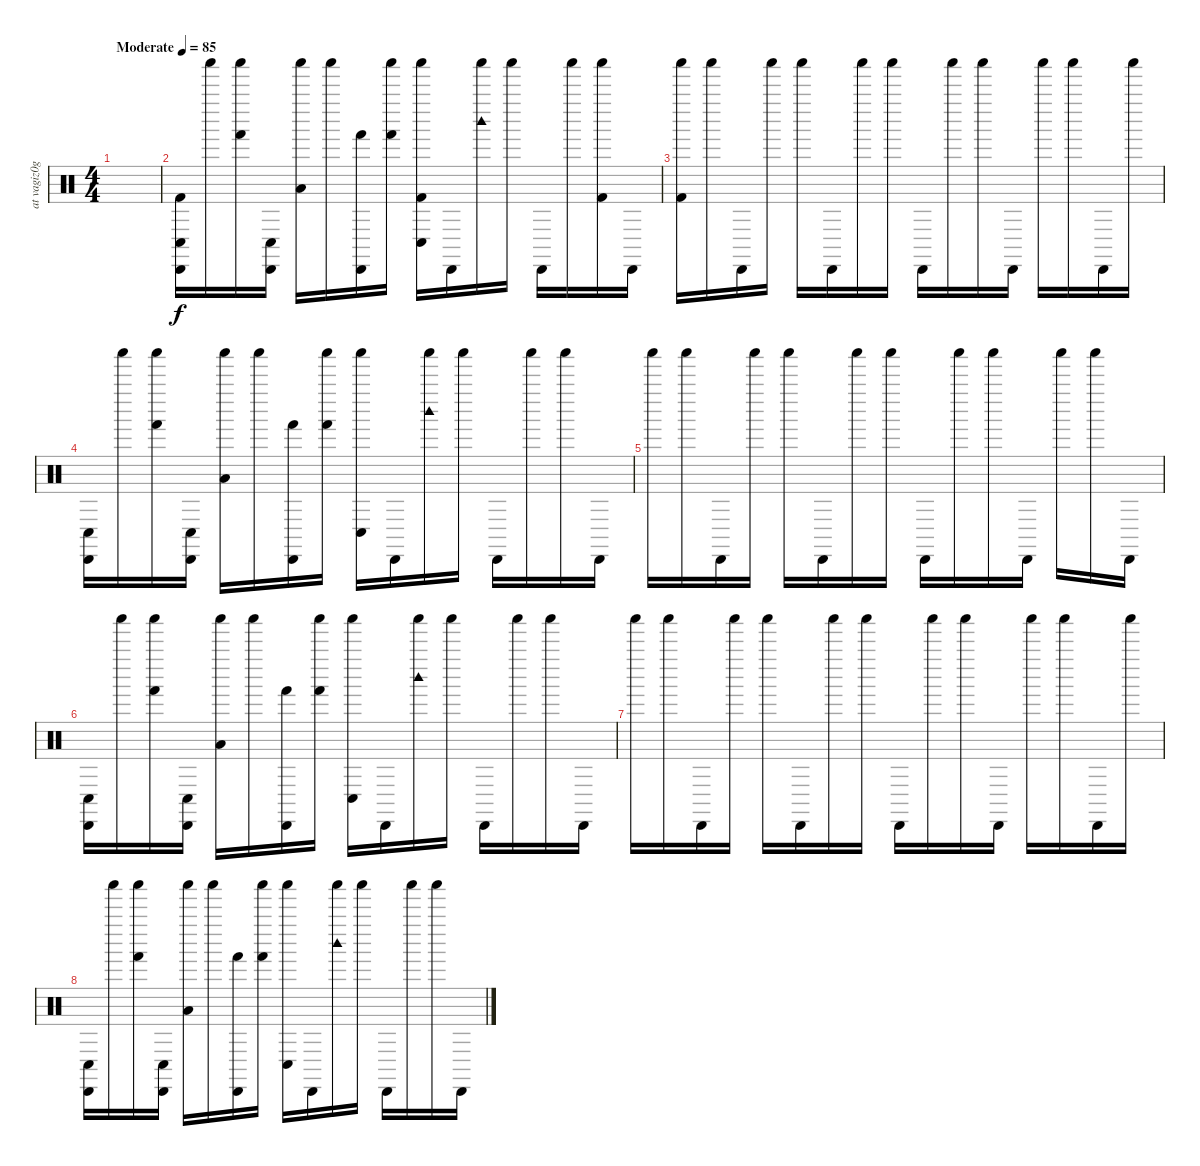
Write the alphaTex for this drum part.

\track ("at vagiz0g@mail.ru" "at vagiz0g") {instrument percussion}
\staff {score}
\articulation defaults
\ts (4 4)
\tempo (85 "Moderate")
\clef neutral
\ks c
|
("Cabasa (hit)" "Conga low (hit)" "Kick (hit) 2").16 "Shaker (hit)".16 ("Shaker (hit)" "Hand (hit)").16 ("Cabasa (hit)" "Conga low (hit)").16 ("Shaker (hit)" "Low Tom (hit)").16 "Shaker (hit)".16 ("Cabasa (hit)" "Hand (hit)").16 ("Shaker (hit)" "Hand (hit)").16 ("Shaker (hit)" "Conga low (hit)" "Kick (hit) 2").16 "Cabasa (hit)".16 ("Shaker (hit)" "Woodblock high (hit)").16 "Shaker (hit)".16 "Cabasa (hit)".16 "Shaker (hit)".16 ("Shaker (hit)" "Kick (hit) 2").16 "Cabasa (hit)".16 |
("Shaker (hit)" "Kick (hit) 2").16 "Shaker (hit)".16 "Cabasa (hit)".16 "Shaker (hit)".16 "Shaker (hit)".16 "Cabasa (hit)".16 "Shaker (hit)".16 "Shaker (hit)".16 "Cabasa (hit)".16 "Shaker (hit)".16 "Shaker (hit)".16 "Cabasa (hit)".16 "Shaker (hit)".16 "Shaker (hit)".16 "Cabasa (hit)".16 "Shaker (hit)".16 |
("Cabasa (hit)" "Conga low (hit)").16 "Shaker (hit)".16 ("Shaker (hit)" "Hand (hit)").16 ("Cabasa (hit)" "Conga low (hit)").16 ("Shaker (hit)" "Low Tom (hit)").16 "Shaker (hit)".16 ("Cabasa (hit)" "Hand (hit)").16 ("Shaker (hit)" "Hand (hit)").16 ("Shaker (hit)" "Conga low (hit)").16 "Cabasa (hit)".16 ("Shaker (hit)" "Woodblock high (hit)").16 "Shaker (hit)".16 "Cabasa (hit)".16 "Shaker (hit)".16 "Shaker (hit)".16 "Cabasa (hit)".16 |
"Shaker (hit)".16 "Shaker (hit)".16 "Cabasa (hit)".16 "Shaker (hit)".16 "Shaker (hit)".16 "Cabasa (hit)".16 "Shaker (hit)".16 "Shaker (hit)".16 "Cabasa (hit)".16 "Shaker (hit)".16 "Shaker (hit)".16 "Cabasa (hit)".16 "Shaker (hit)".16 "Shaker (hit)".16 "Cabasa (hit)".16 |
("Cabasa (hit)" "Conga low (hit)").16 "Shaker (hit)".16 ("Shaker (hit)" "Hand (hit)").16 ("Cabasa (hit)" "Conga low (hit)").16 ("Shaker (hit)" "Low Tom (hit)").16 "Shaker (hit)".16 ("Cabasa (hit)" "Hand (hit)").16 ("Shaker (hit)" "Hand (hit)").16 ("Shaker (hit)" "Conga low (hit)").16 "Cabasa (hit)".16 ("Shaker (hit)" "Woodblock high (hit)").16 "Shaker (hit)".16 "Cabasa (hit)".16 "Shaker (hit)".16 "Shaker (hit)".16 "Cabasa (hit)".16 |
"Shaker (hit)".16 "Shaker (hit)".16 "Cabasa (hit)".16 "Shaker (hit)".16 "Shaker (hit)".16 "Cabasa (hit)".16 "Shaker (hit)".16 "Shaker (hit)".16 "Cabasa (hit)".16 "Shaker (hit)".16 "Shaker (hit)".16 "Cabasa (hit)".16 "Shaker (hit)".16 "Shaker (hit)".16 "Cabasa (hit)".16 "Shaker (hit)".16 |
("Cabasa (hit)" "Conga low (hit)").16 "Shaker (hit)".16 ("Shaker (hit)" "Hand (hit)").16 ("Cabasa (hit)" "Conga low (hit)").16 ("Shaker (hit)" "Low Tom (hit)").16 "Shaker (hit)".16 ("Cabasa (hit)" "Hand (hit)").16 ("Shaker (hit)" "Hand (hit)").16 ("Shaker (hit)" "Conga low (hit)").16 "Cabasa (hit)".16 ("Shaker (hit)" "Woodblock high (hit)").16 "Shaker (hit)".16 "Cabasa (hit)".16 "Shaker (hit)".16 "Shaker (hit)".16 "Cabasa (hit)".16
